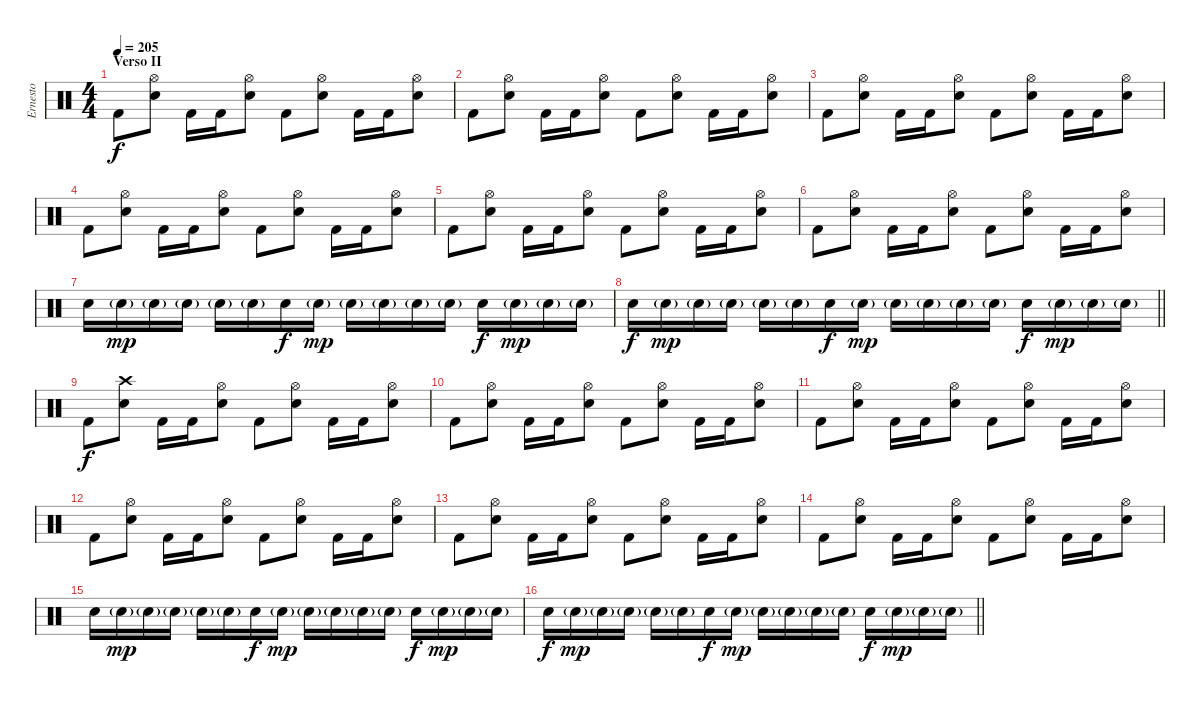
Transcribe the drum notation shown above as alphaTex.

\track ("Ernesto" "Ernesto") {instrument percussion}
\staff {score}
\articulation defaults
\ts (4 4)
\section ("" "Verso II")
\tempo 205
\clef neutral
\ks c "Kick (hit) 2".8{dy f}
("Hi-Hat (open)" "Electric Snare (hit)").8 "Kick (hit) 2".16 "Kick (hit) 2".16 ("Hi-Hat (open)" "Electric Snare (hit)").8 "Kick (hit) 2".8 ("Hi-Hat (open)" "Electric Snare (hit)").8 "Kick (hit) 2".16 "Kick (hit) 2".16 ("Hi-Hat (open)" "Electric Snare (hit)").8 |
"Kick (hit) 2".8 ("Hi-Hat (open)" "Electric Snare (hit)").8 "Kick (hit) 2".16 "Kick (hit) 2".16 ("Hi-Hat (open)" "Electric Snare (hit)").8 "Kick (hit) 2".8 ("Hi-Hat (open)" "Electric Snare (hit)").8 "Kick (hit) 2".16 "Kick (hit) 2".16 ("Hi-Hat (open)" "Electric Snare (hit)").8 |
"Kick (hit) 2".8 ("Hi-Hat (open)" "Electric Snare (hit)").8 "Kick (hit) 2".16 "Kick (hit) 2".16 ("Hi-Hat (open)" "Electric Snare (hit)").8 "Kick (hit) 2".8 ("Hi-Hat (open)" "Electric Snare (hit)").8 "Kick (hit) 2".16 "Kick (hit) 2".16 ("Hi-Hat (open)" "Electric Snare (hit)").8 |
"Kick (hit) 2".8 ("Hi-Hat (open)" "Electric Snare (hit)").8 "Kick (hit) 2".16 "Kick (hit) 2".16 ("Hi-Hat (open)" "Electric Snare (hit)").8 "Kick (hit) 2".8 ("Hi-Hat (open)" "Electric Snare (hit)").8 "Kick (hit) 2".16 "Kick (hit) 2".16 ("Hi-Hat (open)" "Electric Snare (hit)").8 |
"Kick (hit) 2".8 ("Hi-Hat (open)" "Electric Snare (hit)").8 "Kick (hit) 2".16 "Kick (hit) 2".16 ("Hi-Hat (open)" "Electric Snare (hit)").8 "Kick (hit) 2".8 ("Hi-Hat (open)" "Electric Snare (hit)").8 "Kick (hit) 2".16 "Kick (hit) 2".16 ("Hi-Hat (open)" "Electric Snare (hit)").8 |
"Kick (hit) 2".8 ("Hi-Hat (open)" "Electric Snare (hit)").8 "Kick (hit) 2".16 "Kick (hit) 2".16 ("Hi-Hat (open)" "Electric Snare (hit)").8 "Kick (hit) 2".8 ("Hi-Hat (open)" "Electric Snare (hit)").8 "Kick (hit) 2".16 "Kick (hit) 2".16 ("Hi-Hat (open)" "Electric Snare (hit)").8 |
"Electric Snare (hit)".16 "Electric Snare (hit)"{g}.16{dy mp} "Electric Snare (hit)"{g}.16 "Electric Snare (hit)"{g}.16 "Electric Snare (hit)"{g}.16 "Electric Snare (hit)"{g}.16 "Electric Snare (hit)".16{dy f} "Electric Snare (hit)"{g}.16{dy mp} "Electric Snare (hit)"{g}.16 "Electric Snare (hit)"{g}.16 "Electric Snare (hit)"{g}.16 "Electric Snare (hit)"{g}.16 "Electric Snare (hit)".16{dy f} "Electric Snare (hit)"{g}.16{dy mp} "Electric Snare (hit)"{g}.16 "Electric Snare (hit)"{g}.16 |
\barLineRight lightlight "Electric Snare (hit)".16{dy f} "Electric Snare (hit)"{g}.16{dy mp} "Electric Snare (hit)"{g}.16 "Electric Snare (hit)"{g}.16 "Electric Snare (hit)"{g}.16 "Electric Snare (hit)"{g}.16 "Electric Snare (hit)".16{dy f} "Electric Snare (hit)"{g}.16{dy mp} "Electric Snare (hit)"{g}.16 "Electric Snare (hit)"{g}.16 "Electric Snare (hit)"{g}.16 "Electric Snare (hit)"{g}.16 "Electric Snare (hit)".16{dy f} "Electric Snare (hit)"{g}.16{dy mp} "Electric Snare (hit)"{g}.16 "Electric Snare (hit)"{g}.16
|
"Kick (hit) 2".8{dy f} ("Crash high (hit)" "Electric Snare (hit)").8 "Kick (hit) 2".16 "Kick (hit) 2".16 ("Hi-Hat (open)" "Electric Snare (hit)").8 "Kick (hit) 2".8 ("Hi-Hat (open)" "Electric Snare (hit)").8 "Kick (hit) 2".16 "Kick (hit) 2".16 ("Hi-Hat (open)" "Electric Snare (hit)").8 |
"Kick (hit) 2".8 ("Hi-Hat (open)" "Electric Snare (hit)").8 "Kick (hit) 2".16 "Kick (hit) 2".16 ("Hi-Hat (open)" "Electric Snare (hit)").8 "Kick (hit) 2".8 ("Hi-Hat (open)" "Electric Snare (hit)").8 "Kick (hit) 2".16 "Kick (hit) 2".16 ("Hi-Hat (open)" "Electric Snare (hit)").8 |
"Kick (hit) 2".8 ("Hi-Hat (open)" "Electric Snare (hit)").8 "Kick (hit) 2".16 "Kick (hit) 2".16 ("Hi-Hat (open)" "Electric Snare (hit)").8 "Kick (hit) 2".8 ("Hi-Hat (open)" "Electric Snare (hit)").8 "Kick (hit) 2".16 "Kick (hit) 2".16 ("Hi-Hat (open)" "Electric Snare (hit)").8 |
"Kick (hit) 2".8 ("Hi-Hat (open)" "Electric Snare (hit)").8 "Kick (hit) 2".16 "Kick (hit) 2".16 ("Hi-Hat (open)" "Electric Snare (hit)").8 "Kick (hit) 2".8 ("Hi-Hat (open)" "Electric Snare (hit)").8 "Kick (hit) 2".16 "Kick (hit) 2".16 ("Hi-Hat (open)" "Electric Snare (hit)").8 |
"Kick (hit) 2".8 ("Hi-Hat (open)" "Electric Snare (hit)").8 "Kick (hit) 2".16 "Kick (hit) 2".16 ("Hi-Hat (open)" "Electric Snare (hit)").8 "Kick (hit) 2".8 ("Hi-Hat (open)" "Electric Snare (hit)").8 "Kick (hit) 2".16 "Kick (hit) 2".16 ("Hi-Hat (open)" "Electric Snare (hit)").8 |
"Kick (hit) 2".8 ("Hi-Hat (open)" "Electric Snare (hit)").8 "Kick (hit) 2".16 "Kick (hit) 2".16 ("Hi-Hat (open)" "Electric Snare (hit)").8 "Kick (hit) 2".8 ("Hi-Hat (open)" "Electric Snare (hit)").8 "Kick (hit) 2".16 "Kick (hit) 2".16 ("Hi-Hat (open)" "Electric Snare (hit)").8 |
"Electric Snare (hit)".16 "Electric Snare (hit)"{g}.16{dy mp} "Electric Snare (hit)"{g}.16 "Electric Snare (hit)"{g}.16 "Electric Snare (hit)"{g}.16 "Electric Snare (hit)"{g}.16 "Electric Snare (hit)".16{dy f} "Electric Snare (hit)"{g}.16{dy mp} "Electric Snare (hit)"{g}.16 "Electric Snare (hit)"{g}.16 "Electric Snare (hit)"{g}.16 "Electric Snare (hit)"{g}.16 "Electric Snare (hit)".16{dy f} "Electric Snare (hit)"{g}.16{dy mp} "Electric Snare (hit)"{g}.16 "Electric Snare (hit)"{g}.16 |
\barLineRight lightlight "Electric Snare (hit)".16{dy f} "Electric Snare (hit)"{g}.16{dy mp} "Electric Snare (hit)"{g}.16 "Electric Snare (hit)"{g}.16 "Electric Snare (hit)"{g}.16 "Electric Snare (hit)"{g}.16 "Electric Snare (hit)".16{dy f} "Electric Snare (hit)"{g}.16{dy mp} "Electric Snare (hit)"{g}.16 "Electric Snare (hit)"{g}.16 "Electric Snare (hit)"{g}.16 "Electric Snare (hit)"{g}.16 "Electric Snare (hit)".16{dy f} "Electric Snare (hit)"{g}.16{dy mp} "Electric Snare (hit)"{g}.16 "Electric Snare (hit)"{g}.16
